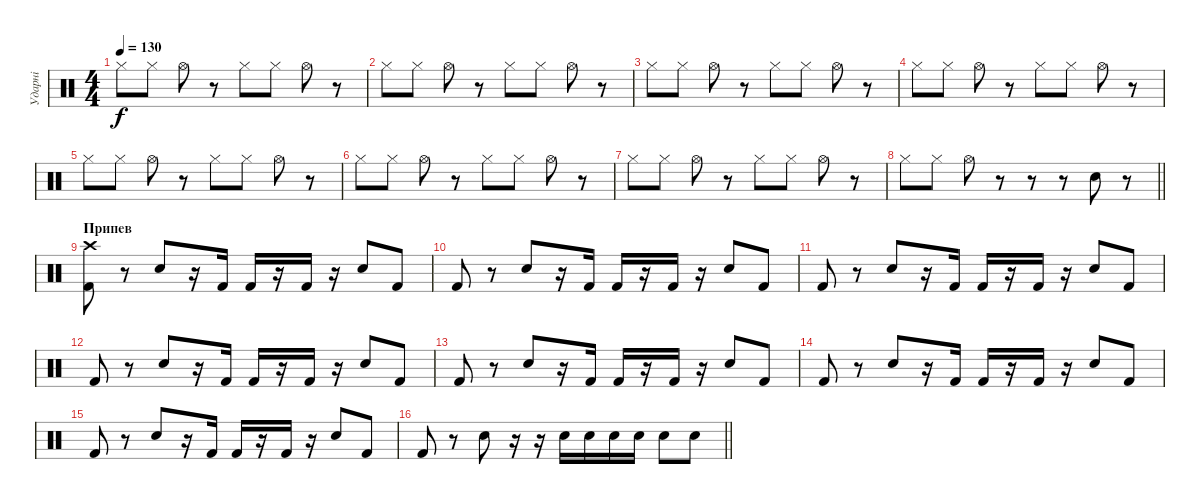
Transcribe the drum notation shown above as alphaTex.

\track ("Ударні" "Ударні") {instrument percussion}
\staff {score}
\articulation defaults
\ts (4 4)
\tempo 130
\clef neutral
\ks c "Hi-Hat (closed)".8{dy f} "Hi-Hat (closed)".8 "Hi-Hat (open)".8
r.8 "Hi-Hat (closed)".8 "Hi-Hat (closed)".8 "Hi-Hat (open)".8 r.8 |
"Hi-Hat (closed)".8 "Hi-Hat (closed)".8 "Hi-Hat (open)".8 r.8 "Hi-Hat (closed)".8 "Hi-Hat (closed)".8 "Hi-Hat (open)".8 r.8 |
"Hi-Hat (closed)".8 "Hi-Hat (closed)".8 "Hi-Hat (open)".8 r.8 "Hi-Hat (closed)".8 "Hi-Hat (closed)".8 "Hi-Hat (open)".8 r.8 |
"Hi-Hat (closed)".8 "Hi-Hat (closed)".8 "Hi-Hat (open)".8 r.8 "Hi-Hat (closed)".8 "Hi-Hat (closed)".8 "Hi-Hat (open)".8 r.8 |
"Hi-Hat (closed)".8 "Hi-Hat (closed)".8 "Hi-Hat (open)".8 r.8 "Hi-Hat (closed)".8 "Hi-Hat (closed)".8 "Hi-Hat (open)".8 r.8 |
"Hi-Hat (closed)".8 "Hi-Hat (closed)".8 "Hi-Hat (open)".8 r.8 "Hi-Hat (closed)".8 "Hi-Hat (closed)".8 "Hi-Hat (open)".8 r.8 |
"Hi-Hat (closed)".8 "Hi-Hat (closed)".8 "Hi-Hat (open)".8 r.8 "Hi-Hat (closed)".8 "Hi-Hat (closed)".8 "Hi-Hat (open)".8 r.8 |
\barLineRight lightlight "Hi-Hat (closed)".8 "Hi-Hat (closed)".8 "Hi-Hat (open)".8
r.8 r.8 r.8 "Snare (hit) 2".8 r.8 |
\section ("" "Припев")
("Kick (hit) 2" "Crash high (hit)").8 r.8 "Snare (hit) 2".8 r.16 "Kick (hit) 2".16 "Kick (hit) 2".16 r.16 "Kick (hit) 2".16 r.16 "Snare (hit) 2".8 "Kick (hit) 2".8 |
"Kick (hit) 2".8 r.8 "Snare (hit) 2".8 r.16 "Kick (hit) 2".16 "Kick (hit) 2".16 r.16 "Kick (hit) 2".16 r.16 "Snare (hit) 2".8 "Kick (hit) 2".8 |
"Kick (hit) 2".8 r.8 "Snare (hit) 2".8 r.16 "Kick (hit) 2".16 "Kick (hit) 2".16 r.16 "Kick (hit) 2".16 r.16 "Snare (hit) 2".8 "Kick (hit) 2".8 |
"Kick (hit) 2".8 r.8 "Snare (hit) 2".8 r.16 "Kick (hit) 2".16 "Kick (hit) 2".16 r.16 "Kick (hit) 2".16 r.16 "Snare (hit) 2".8 "Kick (hit) 2".8 |
"Kick (hit) 2".8 r.8 "Snare (hit) 2".8 r.16 "Kick (hit) 2".16 "Kick (hit) 2".16 r.16 "Kick (hit) 2".16 r.16 "Snare (hit) 2".8 "Kick (hit) 2".8 |
"Kick (hit) 2".8 r.8 "Snare (hit) 2".8 r.16 "Kick (hit) 2".16 "Kick (hit) 2".16 r.16 "Kick (hit) 2".16 r.16 "Snare (hit) 2".8 "Kick (hit) 2".8 |
"Kick (hit) 2".8 r.8 "Snare (hit) 2".8 r.16 "Kick (hit) 2".16 "Kick (hit) 2".16 r.16 "Kick (hit) 2".16 r.16 "Snare (hit) 2".8 "Kick (hit) 2".8 |
\barLineRight lightlight "Kick (hit) 2".8
r.8 "Snare (hit) 2".8 r.16 r.16 "Snare (hit) 2".16 "Snare (hit) 2".16 "Snare (hit) 2".16 "Snare (hit) 2".16 "Snare (hit) 2".8 "Snare (hit) 2".8
